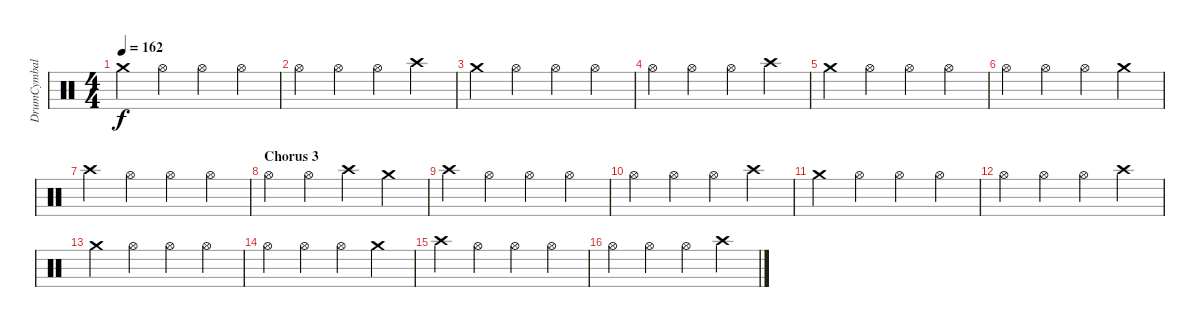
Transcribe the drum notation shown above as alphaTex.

\track ("DrumCymbal" "DrumCymbal") {instrument percussion}
\staff {score}
\articulation defaults
\ts (4 4)
\tempo 162
\clef neutral
\ks c "Crash medium (hit)".4{dy f} "Hi-Hat (open)".4 "Hi-Hat (open)".4 "Hi-Hat (open)".4
|
"Hi-Hat (open)".4 "Hi-Hat (open)".4 "Hi-Hat (open)".4 "Crash high (hit)".4 |
"Crash medium (hit)".4 "Hi-Hat (open)".4 "Hi-Hat (open)".4 "Hi-Hat (open)".4 |
"Hi-Hat (open)".4 "Hi-Hat (open)".4 "Hi-Hat (open)".4 "Crash high (hit)".4 |
"Crash medium (hit)".4 "Hi-Hat (open)".4 "Hi-Hat (open)".4 "Hi-Hat (open)".4 |
"Hi-Hat (open)".4 "Hi-Hat (open)".4 "Hi-Hat (open)".4 "Crash medium (hit)".4 |
"Crash high (hit)".4 "Hi-Hat (open)".4 "Hi-Hat (open)".4 "Hi-Hat (open)".4 |
\section ("" "Chorus 3")
"Hi-Hat (open)".4 "Hi-Hat (open)".4 "Crash high (hit)".4 "Crash medium (hit)".4 |
"Crash high (hit)".4 "Hi-Hat (open)".4 "Hi-Hat (open)".4 "Hi-Hat (open)".4 |
"Hi-Hat (open)".4 "Hi-Hat (open)".4 "Hi-Hat (open)".4 "Crash high (hit)".4 |
"Crash medium (hit)".4 "Hi-Hat (open)".4 "Hi-Hat (open)".4 "Hi-Hat (open)".4 |
"Hi-Hat (open)".4 "Hi-Hat (open)".4 "Hi-Hat (open)".4 "Crash high (hit)".4 |
"Crash medium (hit)".4 "Hi-Hat (open)".4 "Hi-Hat (open)".4 "Hi-Hat (open)".4 |
"Hi-Hat (open)".4 "Hi-Hat (open)".4 "Hi-Hat (open)".4 "Crash medium (hit)".4 |
"Crash high (hit)".4 "Hi-Hat (open)".4 "Hi-Hat (open)".4 "Hi-Hat (open)".4 |
"Hi-Hat (open)".4 "Hi-Hat (open)".4 "Hi-Hat (open)".4 "Crash high (hit)".4
